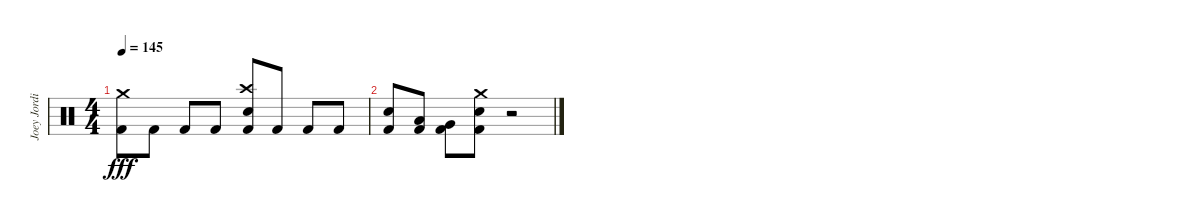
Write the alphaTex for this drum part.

\track ("Joey Jordison" "Joey Jordi") {instrument percussion}
\staff {score}
\articulation defaults
\ts (4 4)
\tempo 145
\clef neutral
\ks c
("Crash medium (hit)" "Kick (hit) 2").8{dy fff} "Kick (hit) 2".8 "Kick (hit) 2".8 "Kick (hit) 2".8 ("Crash high (hit)" "Electric Snare (hit)" "Kick (hit) 2").8 "Kick (hit) 2".8 "Kick (hit) 2".8 "Kick (hit) 2".8 |
("Electric Snare (hit)" "Kick (hit) 2").8 ("Low Tom (hit)" "Kick (hit) 2").8 ("Very Low Tom (hit)" "Kick (hit) 2").8 ("Crash medium (hit)" "Electric Snare (hit)" "Kick (hit) 2").8 r.2
